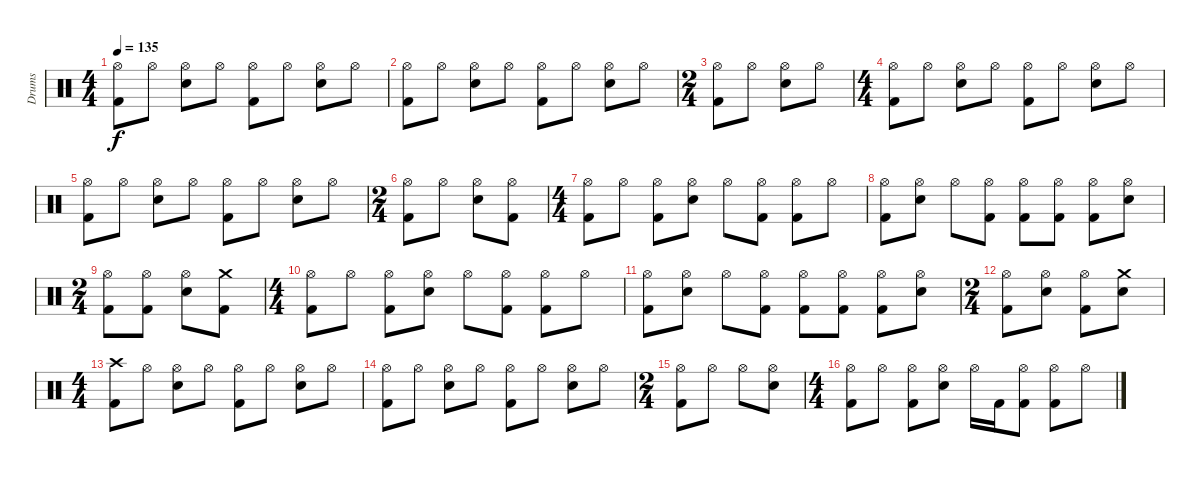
\track ("Drums" "Drums") {instrument percussion}
\staff {score}
\articulation defaults
\ts (4 4)
\tempo 135
\clef neutral
\ks c
("Hi-Hat (open)" "Kick (hit) 2").8{dy f} "Hi-Hat (open)".8 ("Hi-Hat (open)" "Electric Snare (hit)").8 "Hi-Hat (open)".8 ("Hi-Hat (open)" "Kick (hit) 2").8 "Hi-Hat (open)".8 ("Hi-Hat (open)" "Electric Snare (hit)").8 "Hi-Hat (open)".8 |
("Hi-Hat (open)" "Kick (hit) 2").8 "Hi-Hat (open)".8 ("Hi-Hat (open)" "Electric Snare (hit)").8 "Hi-Hat (open)".8 ("Hi-Hat (open)" "Kick (hit) 2").8 "Hi-Hat (open)".8 ("Hi-Hat (open)" "Electric Snare (hit)").8 "Hi-Hat (open)".8 |
\ts (2 4)
("Hi-Hat (open)" "Kick (hit) 2").8 "Hi-Hat (open)".8 ("Hi-Hat (open)" "Electric Snare (hit)").8 "Hi-Hat (open)".8 |
\ts (4 4)
("Hi-Hat (open)" "Kick (hit) 2").8 "Hi-Hat (open)".8 ("Hi-Hat (open)" "Electric Snare (hit)").8 "Hi-Hat (open)".8 ("Hi-Hat (open)" "Kick (hit) 2").8 "Hi-Hat (open)".8 ("Hi-Hat (open)" "Electric Snare (hit)").8 "Hi-Hat (open)".8 |
("Hi-Hat (open)" "Kick (hit) 2").8 "Hi-Hat (open)".8 ("Hi-Hat (open)" "Electric Snare (hit)").8 "Hi-Hat (open)".8 ("Hi-Hat (open)" "Kick (hit) 2").8 "Hi-Hat (open)".8 ("Hi-Hat (open)" "Electric Snare (hit)").8 "Hi-Hat (open)".8 |
\ts (2 4)
("Hi-Hat (open)" "Kick (hit) 2").8 "Hi-Hat (open)".8 ("Hi-Hat (open)" "Electric Snare (hit)").8 ("Hi-Hat (open)" "Kick (hit) 2").8 |
\ts (4 4)
("Hi-Hat (open)" "Kick (hit) 2").8 "Hi-Hat (open)".8 ("Hi-Hat (open)" "Kick (hit) 2").8 ("Hi-Hat (open)" "Electric Snare (hit)").8 "Hi-Hat (open)".8 ("Hi-Hat (open)" "Kick (hit) 2").8 ("Hi-Hat (open)" "Kick (hit) 2").8 "Hi-Hat (open)".8 |
("Hi-Hat (open)" "Kick (hit) 2").8 ("Hi-Hat (open)" "Electric Snare (hit)").8 "Hi-Hat (open)".8 ("Hi-Hat (open)" "Kick (hit) 2").8 ("Hi-Hat (open)" "Kick (hit) 2").8 ("Hi-Hat (open)" "Kick (hit) 2").8 ("Hi-Hat (open)" "Kick (hit) 2").8 ("Hi-Hat (open)" "Electric Snare (hit)").8 |
\ts (2 4)
("Hi-Hat (open)" "Kick (hit) 2").8 ("Hi-Hat (open)" "Kick (hit) 2").8 ("Hi-Hat (open)" "Electric Snare (hit)").8 ("Crash medium (hit)" "Kick (hit) 2").8 |
\ts (4 4)
("Hi-Hat (open)" "Kick (hit) 2").8 "Hi-Hat (open)".8 ("Hi-Hat (open)" "Kick (hit) 2").8 ("Hi-Hat (open)" "Electric Snare (hit)").8 "Hi-Hat (open)".8 ("Hi-Hat (open)" "Kick (hit) 2").8 ("Hi-Hat (open)" "Kick (hit) 2").8 "Hi-Hat (open)".8 |
("Hi-Hat (open)" "Kick (hit) 2").8 ("Hi-Hat (open)" "Electric Snare (hit)").8 "Hi-Hat (open)".8 ("Hi-Hat (open)" "Kick (hit) 2").8 ("Hi-Hat (open)" "Kick (hit) 2").8 ("Hi-Hat (open)" "Kick (hit) 2").8 ("Hi-Hat (open)" "Kick (hit) 2").8 ("Hi-Hat (open)" "Electric Snare (hit)").8 |
\ts (2 4)
("Hi-Hat (open)" "Kick (hit) 2").8 ("Hi-Hat (open)" "Electric Snare (hit)").8 ("Hi-Hat (open)" "Kick (hit) 2").8 ("Crash medium (hit)" "Electric Snare (hit)").8 |
\ts (4 4)
("Crash high (hit)" "Kick (hit) 2").8 "Hi-Hat (open)".8 ("Hi-Hat (open)" "Electric Snare (hit)").8 "Hi-Hat (open)".8 ("Hi-Hat (open)" "Kick (hit) 2").8 "Hi-Hat (open)".8 ("Hi-Hat (open)" "Electric Snare (hit)").8 "Hi-Hat (open)".8 |
("Hi-Hat (open)" "Kick (hit) 2").8 "Hi-Hat (open)".8 ("Hi-Hat (open)" "Electric Snare (hit)").8 "Hi-Hat (open)".8 ("Hi-Hat (open)" "Kick (hit) 2").8 "Hi-Hat (open)".8 ("Hi-Hat (open)" "Electric Snare (hit)").8 "Hi-Hat (open)".8 |
\ts (2 4)
("Hi-Hat (open)" "Kick (hit) 2").8 "Hi-Hat (open)".8 "Hi-Hat (open)".8 ("Hi-Hat (open)" "Electric Snare (hit)").8 |
\ts (4 4)
("Hi-Hat (open)" "Kick (hit) 2").8 "Hi-Hat (open)".8 ("Hi-Hat (open)" "Kick (hit) 2").8 ("Hi-Hat (open)" "Electric Snare (hit)").8 "Hi-Hat (open)".16 "Kick (hit) 2".16 ("Hi-Hat (open)" "Kick (hit) 2").8 ("Hi-Hat (open)" "Kick (hit) 2").8 "Hi-Hat (open)".8
